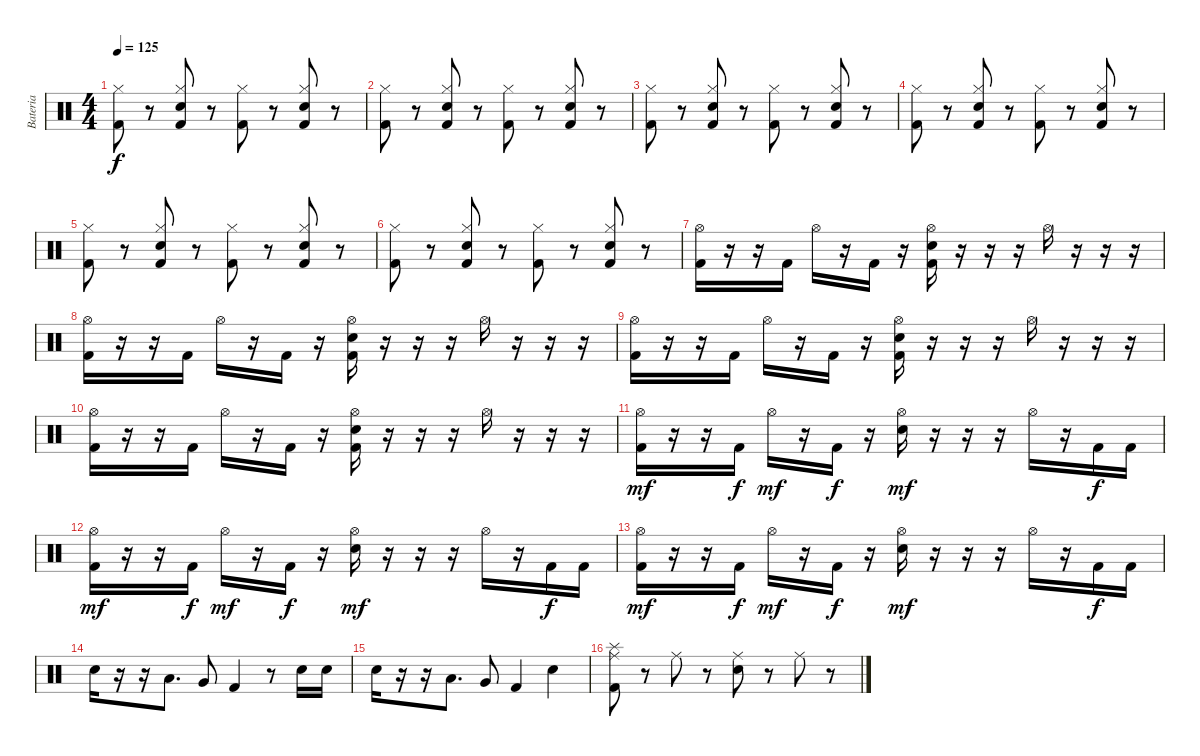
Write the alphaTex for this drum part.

\track ("Bateria" "Bateria") {instrument percussion}
\staff {score}
\articulation defaults
\ts (4 4)
\tempo 125
\clef neutral
\ks c
("Kick (hit) 2" "Hi-Hat (closed)").8{dy f} r.8 ("Kick (hit) 2" "Electric Snare (hit)" "Hi-Hat (closed)").8 r.8 ("Kick (hit) 2" "Hi-Hat (closed)").8 r.8 ("Kick (hit) 2" "Electric Snare (hit)" "Hi-Hat (closed)").8 r.8 |
("Kick (hit) 2" "Hi-Hat (closed)").8 r.8 ("Kick (hit) 2" "Electric Snare (hit)" "Hi-Hat (closed)").8 r.8 ("Kick (hit) 2" "Hi-Hat (closed)").8 r.8 ("Kick (hit) 2" "Electric Snare (hit)" "Hi-Hat (closed)").8 r.8 |
("Kick (hit) 2" "Hi-Hat (closed)").8 r.8 ("Kick (hit) 2" "Electric Snare (hit)" "Hi-Hat (closed)").8 r.8 ("Kick (hit) 2" "Hi-Hat (closed)").8 r.8 ("Kick (hit) 2" "Electric Snare (hit)" "Hi-Hat (closed)").8 r.8 |
("Kick (hit) 2" "Hi-Hat (closed)").8 r.8 ("Kick (hit) 2" "Electric Snare (hit)" "Hi-Hat (closed)").8 r.8 ("Kick (hit) 2" "Hi-Hat (closed)").8 r.8 ("Kick (hit) 2" "Electric Snare (hit)" "Hi-Hat (closed)").8 r.8 |
("Kick (hit) 2" "Hi-Hat (closed)").8 r.8 ("Kick (hit) 2" "Electric Snare (hit)" "Hi-Hat (closed)").8 r.8 ("Kick (hit) 2" "Hi-Hat (closed)").8 r.8 ("Kick (hit) 2" "Electric Snare (hit)" "Hi-Hat (closed)").8 r.8 |
("Kick (hit) 2" "Hi-Hat (closed)").8 r.8 ("Kick (hit) 2" "Electric Snare (hit)" "Hi-Hat (closed)").8 r.8 ("Kick (hit) 2" "Hi-Hat (closed)").8 r.8 ("Kick (hit) 2" "Electric Snare (hit)" "Hi-Hat (closed)").8 r.8 |
("Kick (hit) 2" "Hi-Hat (open)").16 r.16 r.16 "Kick (hit) 2".16 "Hi-Hat (open)".16 r.16 "Kick (hit) 2".16 r.16 ("Kick (hit) 2" "Electric Snare (hit)" "Hi-Hat (open)").16 r.16 r.16 r.16 "Hi-Hat (open)".16 r.16 r.16 r.16 |
("Kick (hit) 2" "Hi-Hat (open)").16 r.16 r.16 "Kick (hit) 2".16 "Hi-Hat (open)".16 r.16 "Kick (hit) 2".16 r.16 ("Kick (hit) 2" "Electric Snare (hit)" "Hi-Hat (open)").16 r.16 r.16 r.16 "Hi-Hat (open)".16 r.16 r.16 r.16 |
("Kick (hit) 2" "Hi-Hat (open)").16 r.16 r.16 "Kick (hit) 2".16 "Hi-Hat (open)".16 r.16 "Kick (hit) 2".16 r.16 ("Kick (hit) 2" "Electric Snare (hit)" "Hi-Hat (open)").16 r.16 r.16 r.16 "Hi-Hat (open)".16 r.16 r.16 r.16 |
("Kick (hit) 2" "Hi-Hat (open)").16 r.16 r.16 "Kick (hit) 2".16 "Hi-Hat (open)".16 r.16 "Kick (hit) 2".16 r.16 ("Kick (hit) 2" "Electric Snare (hit)" "Hi-Hat (open)").16 r.16 r.16 r.16 "Hi-Hat (open)".16 r.16 r.16 r.16 |
("Kick (hit) 2" "Hi-Hat (open)").16{dy mf} r.16 r.16 "Kick (hit) 2".16{dy f} "Hi-Hat (open)".16{dy mf} r.16 "Kick (hit) 2".16{dy f} r.16 ("Electric Snare (hit)" "Hi-Hat (open)").16{dy mf} r.16 r.16 r.16 "Hi-Hat (open)".16 r.16 "Kick (hit) 2".16{dy f} "Kick (hit) 2".16 |
("Kick (hit) 2" "Hi-Hat (open)").16{dy mf} r.16 r.16 "Kick (hit) 2".16{dy f} "Hi-Hat (open)".16{dy mf} r.16 "Kick (hit) 2".16{dy f} r.16 ("Electric Snare (hit)" "Hi-Hat (open)").16{dy mf} r.16 r.16 r.16 "Hi-Hat (open)".16 r.16 "Kick (hit) 2".16{dy f} "Kick (hit) 2".16 |
("Kick (hit) 2" "Hi-Hat (open)").16{dy mf} r.16 r.16 "Kick (hit) 2".16{dy f} "Hi-Hat (open)".16{dy mf} r.16 "Kick (hit) 2".16{dy f} r.16 ("Electric Snare (hit)" "Hi-Hat (open)").16{dy mf} r.16 r.16 r.16 "Hi-Hat (open)".16 r.16 "Kick (hit) 2".16{dy f} "Kick (hit) 2".16 |
"Electric Snare (hit)".16 r.16 r.16 "Low Tom (hit)".8{d} "Very Low Tom (hit)".8 "Kick (hit) 2".4 r.8 "Electric Snare (hit)".16 "Electric Snare (hit)".16 |
"Electric Snare (hit)".16 r.16 r.16 "Low Tom (hit)".8{d} "Very Low Tom (hit)".8 "Kick (hit) 2".4 "Electric Snare (hit)".4 |
("Ride (middle)" "Kick (hit) 2" "Splash (hit)").8 r.8 "Ride (middle)".8 r.8 ("Ride (middle)" "Electric Snare (hit)").8 r.8 "Ride (middle)".8 r.8
